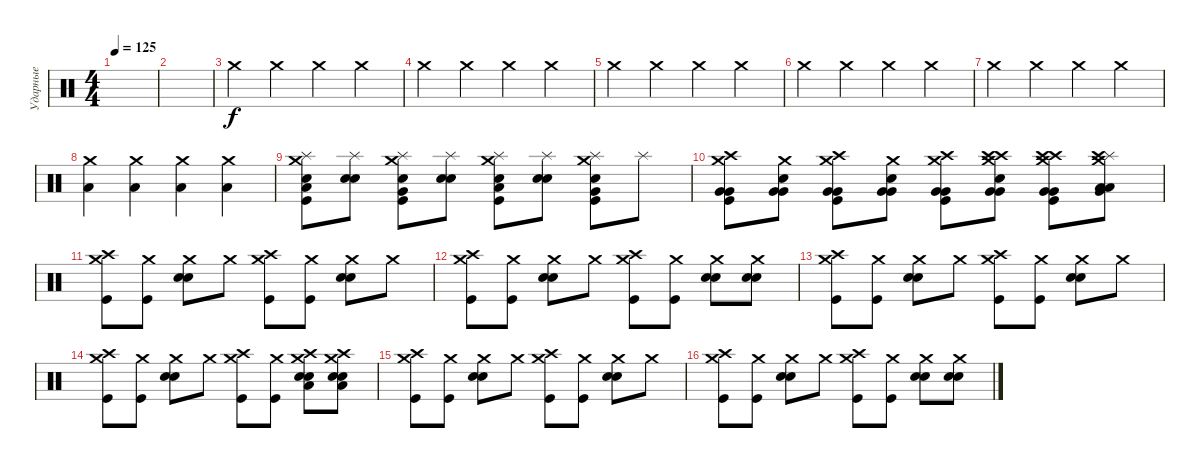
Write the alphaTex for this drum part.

\track ("Ударные" "Ударные") {instrument percussion}
\staff {score}
\articulation defaults
\ts (4 4)
\tempo 125
\clef neutral
\ks c
|
|
"Crash medium (hit)".4 "Crash medium (hit)".4 "Crash medium (hit)".4 "Crash medium (hit)".4 |
"Crash medium (hit)".4 "Crash medium (hit)".4 "Crash medium (hit)".4 "Crash medium (hit)".4 |
"Crash medium (hit)".4 "Crash medium (hit)".4 "Crash medium (hit)".4 "Crash medium (hit)".4 |
"Crash medium (hit)".4 "Crash medium (hit)".4 "Crash medium (hit)".4 "Crash medium (hit)".4 |
"Crash medium (hit)".4 "Crash medium (hit)".4 "Crash medium (hit)".4 "Crash medium (hit)".4 |
("Crash medium (hit)" "Low Floor Tom (hit)").4 ("Crash medium (hit)" "Low Floor Tom (hit)").4 ("Crash medium (hit)" "Low Floor Tom (hit)").4 ("Crash medium (hit)" "Low Floor Tom (hit)").4 |
("Crash medium (hit)" "Splash (hit)" "Low Floor Tom (hit)" "Snare (hit) 2" "Kick (hit)").8 ("Splash (hit)" "Electric Snare (hit)" "Electric Snare (hit)").8 ("Crash medium (hit)" "Splash (hit)" "Very Low Tom (hit)" "Snare (hit) 2" "Kick (hit)").8 ("Splash (hit)" "Electric Snare (hit)" "Electric Snare (hit)").8 ("Crash medium (hit)" "Splash (hit)" "Low Floor Tom (hit)" "Snare (hit) 2" "Kick (hit)").8 ("Splash (hit)" "Electric Snare (hit)" "Electric Snare (hit)").8 ("Crash medium (hit)" "Splash (hit)" "Very Low Tom (hit)" "Snare (hit) 2" "Kick (hit)").8 "Splash (hit)".8 |
("Crash medium (hit)" "Crash high (hit)" "Very Low Tom (hit)" "Very Low Tom (hit)" "Kick (hit)").8 ("Crash medium (hit)" "Very Low Tom (hit)" "Snare (hit) 2" "Very Low Tom (hit)").8 ("Crash medium (hit)" "Crash high (hit)" "Very Low Tom (hit)" "Very Low Tom (hit)" "Kick (hit)").8 ("Crash medium (hit)" "Very Low Tom (hit)" "Electric Snare (hit)" "Very Low Tom (hit)").8 ("Crash medium (hit)" "Crash high (hit)" "Very Low Tom (hit)" "Very Low Tom (hit)" "Kick (hit)").8 ("Crash medium (hit)" "Very Low Tom (hit)" "Snare (hit) 2" "Very Low Tom (hit)" "Crash high (hit)" "Crash high (hit)").8 ("Crash medium (hit)" "Crash high (hit)" "Very Low Tom (hit)" "Very Low Tom (hit)" "Crash high (hit)" "Kick (hit)").8 ("Crash medium (hit)" "Very Low Tom (hit)" "Low Floor Tom (hit)" "Low Floor Tom (hit)" "Splash (hit)" "Crash high (hit)").8 |
("Crash medium (hit)" "Crash high (hit)" "Kick (hit)").8 ("Crash medium (hit)" "Kick (hit)").8 ("Crash medium (hit)" "Snare (hit) 2" "Snare (hit) 2").8 "Crash medium (hit)".8 ("Crash medium (hit)" "Crash high (hit)" "Kick (hit)").8 ("Crash medium (hit)" "Kick (hit)").8 ("Crash medium (hit)" "Snare (hit) 2" "Snare (hit) 2").8 "Crash medium (hit)".8 |
("Crash medium (hit)" "Crash high (hit)" "Kick (hit)").8 ("Crash medium (hit)" "Kick (hit)").8 ("Crash medium (hit)" "Snare (hit) 2" "Snare (hit) 2").8 "Crash medium (hit)".8 ("Crash medium (hit)" "Crash high (hit)" "Kick (hit)").8 ("Crash medium (hit)" "Kick (hit)").8 ("Crash medium (hit)" "Snare (hit) 2" "Snare (hit) 2").8 ("Crash medium (hit)" "Snare (hit) 2" "Snare (hit) 2").8 |
("Crash medium (hit)" "Crash high (hit)" "Kick (hit)").8 ("Crash medium (hit)" "Kick (hit)").8 ("Crash medium (hit)" "Snare (hit) 2" "Snare (hit) 2").8 "Crash medium (hit)".8 ("Crash medium (hit)" "Crash high (hit)" "Kick (hit)").8 ("Crash medium (hit)" "Kick (hit)").8 ("Crash medium (hit)" "Snare (hit) 2" "Snare (hit) 2").8 "Crash medium (hit)".8 |
("Crash medium (hit)" "Crash high (hit)" "Kick (hit)").8 ("Crash medium (hit)" "Kick (hit)").8 ("Crash medium (hit)" "Snare (hit) 2" "Snare (hit) 2").8 "Crash medium (hit)".8 ("Crash medium (hit)" "Crash high (hit)" "Kick (hit)").8 ("Crash medium (hit)" "Kick (hit)").8 ("Crash medium (hit)" "Crash high (hit)" "Low Floor Tom (hit)" "Snare (hit) 2" "Snare (hit) 2").8 ("Crash medium (hit)" "Crash high (hit)" "Low Floor Tom (hit)" "Snare (hit) 2" "Snare (hit) 2").8 |
("Crash medium (hit)" "Crash high (hit)" "Kick (hit)").8 ("Crash medium (hit)" "Kick (hit)").8 ("Crash medium (hit)" "Snare (hit) 2" "Snare (hit) 2").8 "Crash medium (hit)".8 ("Crash medium (hit)" "Crash high (hit)" "Kick (hit)").8 ("Crash medium (hit)" "Kick (hit)").8 ("Crash medium (hit)" "Snare (hit) 2" "Snare (hit) 2").8 "Crash medium (hit)".8 |
("Crash medium (hit)" "Crash high (hit)" "Kick (hit)").8 ("Crash medium (hit)" "Kick (hit)").8 ("Crash medium (hit)" "Snare (hit) 2" "Snare (hit) 2").8 "Crash medium (hit)".8 ("Crash medium (hit)" "Crash high (hit)" "Kick (hit)").8 ("Crash medium (hit)" "Kick (hit)").8 ("Crash medium (hit)" "Snare (hit) 2" "Snare (hit) 2").8 ("Crash medium (hit)" "Snare (hit) 2" "Snare (hit) 2").8
